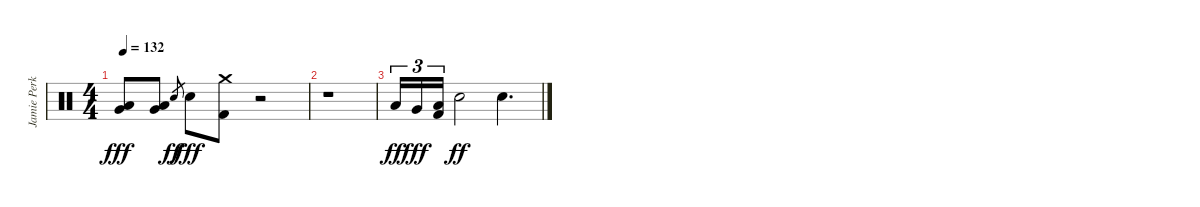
\track ("Jamie Perkins" "Jamie Perk") {instrument percussion}
\staff {score}
\articulation defaults
\ts (4 4)
\tempo 132
\clef neutral
\ks c
("Low Tom (hit)" "Very Low Tom (hit)").8{dy fff} ("Low Tom (hit)" "Very Low Tom (hit)").8 "Snare (hit) 2".8{gr dy ff} "Snare (hit) 2".8{dy fff} ("Crash medium (hit)" "Kick (hit) 2").8 r.2 |
r.1 |
"Low Tom (hit)".16{tu (3 2) dy ff} "Very Low Tom (hit)".16{tu (3 2) dy fff} ("Low Floor Tom (hit)" "Kick (hit) 2").16{tu (3 2)} "Snare (hit)".2{dy ff} "Snare (hit)".4{d}
